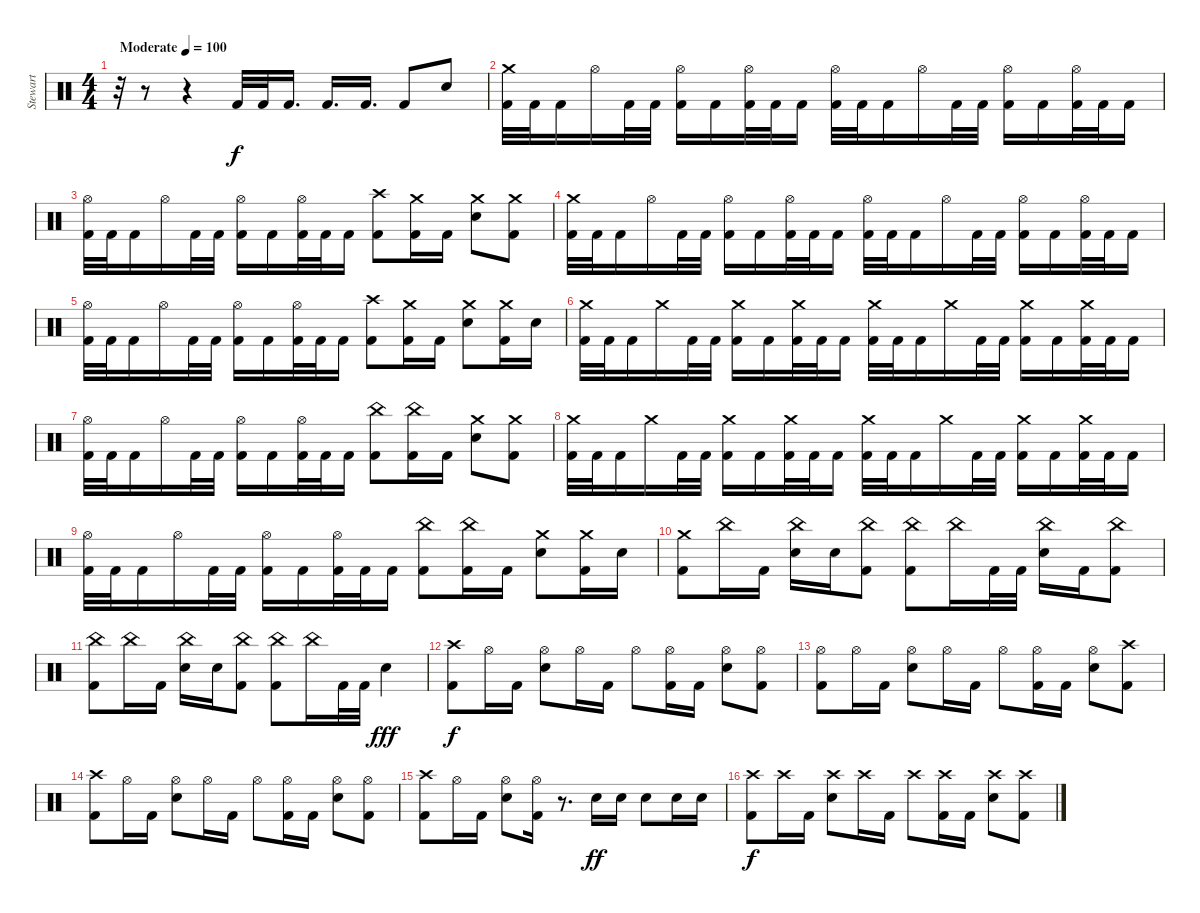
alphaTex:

\track ("Stewart" "Stewart") {instrument percussion}
\staff {score}
\articulation defaults
\ts (4 4)
\tempo (100 "Moderate")
\clef neutral
\ks c
r.32{dy f} r.8 r.4 "Kick (hit) 2".32 "Kick (hit) 2".32 "Kick (hit) 2".16{d} "Kick (hit) 2".16{d} "Kick (hit) 2".16{d} "Kick (hit) 2".8 "Electric Snare (hit)".8 |
("Crash medium (hit)" "Kick (hit) 2").32 "Kick (hit) 2".32 "Kick (hit) 2".16 "Hi-Hat (open)".16 "Kick (hit) 2".32 "Kick (hit) 2".32 ("Hi-Hat (open)" "Kick (hit) 2").16 "Kick (hit) 2".16 ("Hi-Hat (open)" "Kick (hit) 2").32 "Kick (hit) 2".32 "Kick (hit) 2".16 ("Hi-Hat (open)" "Kick (hit) 2").32 "Kick (hit) 2".32 "Kick (hit) 2".16 "Hi-Hat (open)".16 "Kick (hit) 2".32 "Kick (hit) 2".32 ("Hi-Hat (open)" "Kick (hit) 2").16 "Kick (hit) 2".16 ("Hi-Hat (open)" "Kick (hit) 2").32 "Kick (hit) 2".32 "Kick (hit) 2".16 |
("Hi-Hat (open)" "Kick (hit) 2").32 "Kick (hit) 2".32 "Kick (hit) 2".16 "Hi-Hat (open)".16 "Kick (hit) 2".32 "Kick (hit) 2".32 ("Hi-Hat (open)" "Kick (hit) 2").16 "Kick (hit) 2".16 ("Hi-Hat (open)" "Kick (hit) 2").32 "Kick (hit) 2".32 "Kick (hit) 2".16 ("Crash high (hit)" "Kick (hit) 2").8 ("Crash medium (hit)" "Kick (hit) 2").16 "Kick (hit) 2".16 ("Crash medium (hit)" "Electric Snare (hit)").8 ("Crash medium (hit)" "Kick (hit) 2").8 |
("Crash medium (hit)" "Kick (hit) 2").32 "Kick (hit) 2".32 "Kick (hit) 2".16 "Hi-Hat (open)".16 "Kick (hit) 2".32 "Kick (hit) 2".32 ("Hi-Hat (open)" "Kick (hit) 2").16 "Kick (hit) 2".16 ("Hi-Hat (open)" "Kick (hit) 2").32 "Kick (hit) 2".32 "Kick (hit) 2".16 ("Hi-Hat (open)" "Kick (hit) 2").32 "Kick (hit) 2".32 "Kick (hit) 2".16 "Hi-Hat (open)".16 "Kick (hit) 2".32 "Kick (hit) 2".32 ("Hi-Hat (open)" "Kick (hit) 2").16 "Kick (hit) 2".16 ("Hi-Hat (open)" "Kick (hit) 2").32 "Kick (hit) 2".32 "Kick (hit) 2".16 |
("Hi-Hat (open)" "Kick (hit) 2").32 "Kick (hit) 2".32 "Kick (hit) 2".16 "Hi-Hat (open)".16 "Kick (hit) 2".32 "Kick (hit) 2".32 ("Hi-Hat (open)" "Kick (hit) 2").16 "Kick (hit) 2".16 ("Hi-Hat (open)" "Kick (hit) 2").32 "Kick (hit) 2".32 "Kick (hit) 2".16 ("Crash high (hit)" "Kick (hit) 2").8 ("Crash medium (hit)" "Kick (hit) 2").16 "Kick (hit) 2".16 ("Crash medium (hit)" "Electric Snare (hit)").8 ("Crash medium (hit)" "Kick (hit) 2").16 "Electric Snare (hit)".16 |
("Crash medium (hit)" "Kick (hit) 2").32 "Kick (hit) 2".32 "Kick (hit) 2".16 "Crash medium (hit)".16 "Kick (hit) 2".32 "Kick (hit) 2".32 ("Crash medium (hit)" "Kick (hit) 2").16 "Kick (hit) 2".16 ("Crash medium (hit)" "Kick (hit) 2").32 "Kick (hit) 2".32 "Kick (hit) 2".16 ("Crash medium (hit)" "Kick (hit) 2").32 "Kick (hit) 2".32 "Kick (hit) 2".16 "Crash medium (hit)".16 "Kick (hit) 2".32 "Kick (hit) 2".32 ("Crash medium (hit)" "Kick (hit) 2").16 "Kick (hit) 2".16 ("Crash medium (hit)" "Kick (hit) 2").32 "Kick (hit) 2".32 "Kick (hit) 2".16 |
("Hi-Hat (open)" "Kick (hit) 2").32 "Kick (hit) 2".32 "Kick (hit) 2".16 "Hi-Hat (open)".16 "Kick (hit) 2".32 "Kick (hit) 2".32 ("Hi-Hat (open)" "Kick (hit) 2").16 "Kick (hit) 2".16 ("Hi-Hat (open)" "Kick (hit) 2").32 "Kick (hit) 2".32 "Kick (hit) 2".16 ("China (hit)" "Kick (hit) 2").8 ("China (hit)" "Kick (hit) 2").16 "Kick (hit) 2".16 ("Crash medium (hit)" "Electric Snare (hit)").8 ("Crash medium (hit)" "Kick (hit) 2").8 |
("Crash medium (hit)" "Kick (hit) 2").32 "Kick (hit) 2".32 "Kick (hit) 2".16 "Crash medium (hit)".16 "Kick (hit) 2".32 "Kick (hit) 2".32 ("Crash medium (hit)" "Kick (hit) 2").16 "Kick (hit) 2".16 ("Crash medium (hit)" "Kick (hit) 2").32 "Kick (hit) 2".32 "Kick (hit) 2".16 ("Crash medium (hit)" "Kick (hit) 2").32 "Kick (hit) 2".32 "Kick (hit) 2".16 "Crash medium (hit)".16 "Kick (hit) 2".32 "Kick (hit) 2".32 ("Crash medium (hit)" "Kick (hit) 2").16 "Kick (hit) 2".16 ("Crash medium (hit)" "Kick (hit) 2").32 "Kick (hit) 2".32 "Kick (hit) 2".16 |
("Hi-Hat (open)" "Kick (hit) 2").32 "Kick (hit) 2".32 "Kick (hit) 2".16 "Hi-Hat (open)".16 "Kick (hit) 2".32 "Kick (hit) 2".32 ("Hi-Hat (open)" "Kick (hit) 2").16 "Kick (hit) 2".16 ("Hi-Hat (open)" "Kick (hit) 2").32 "Kick (hit) 2".32 "Kick (hit) 2".16 ("China (hit)" "Kick (hit) 2").8 ("China (hit)" "Kick (hit) 2").16 "Kick (hit) 2".16 ("Crash medium (hit)" "Electric Snare (hit)").8 ("Crash medium (hit)" "Kick (hit) 2").16 "Electric Snare (hit)".16 |
("Crash medium (hit)" "Kick (hit) 2").8 "China (hit)".16 "Kick (hit) 2".16 ("China (hit)" "Electric Snare (hit)").16 "Electric Snare (hit)".16 ("China (hit)" "Kick (hit) 2").8 ("China (hit)" "Kick (hit) 2").8 "China (hit)".16 "Kick (hit) 2".32 "Kick (hit) 2".32 ("China (hit)" "Electric Snare (hit)").16 "Kick (hit) 2".16 ("China (hit)" "Kick (hit) 2").8 |
("China (hit)" "Kick (hit) 2").8 "China (hit)".16 "Kick (hit) 2".16 ("China (hit)" "Electric Snare (hit)").16 "Electric Snare (hit)".16 ("China (hit)" "Kick (hit) 2").8 ("China (hit)" "Kick (hit) 2").8 "China (hit)".16 "Kick (hit) 2".32 "Kick (hit) 2".32 "Electric Snare (hit)".4{dy fff} |
("Crash high (hit)" "Kick (hit) 2").8{dy f} "Hi-Hat (open)".16 "Kick (hit) 2".16 ("Hi-Hat (open)" "Electric Snare (hit)").8 "Hi-Hat (open)".16 "Kick (hit) 2".16 "Hi-Hat (open)".8 ("Hi-Hat (open)" "Kick (hit) 2").16 "Kick (hit) 2".16 ("Hi-Hat (open)" "Electric Snare (hit)").8 ("Hi-Hat (open)" "Kick (hit) 2").8 |
("Hi-Hat (open)" "Kick (hit) 2").8 "Hi-Hat (open)".16 "Kick (hit) 2".16 ("Hi-Hat (open)" "Electric Snare (hit)").8 "Hi-Hat (open)".16 "Kick (hit) 2".16 "Hi-Hat (open)".8 ("Hi-Hat (open)" "Kick (hit) 2").16 "Kick (hit) 2".16 ("Hi-Hat (open)" "Electric Snare (hit)").8 ("Crash high (hit)" "Kick (hit) 2").8 |
("Crash high (hit)" "Kick (hit) 2").8 "Hi-Hat (open)".16 "Kick (hit) 2".16 ("Hi-Hat (open)" "Electric Snare (hit)").8 "Hi-Hat (open)".16 "Kick (hit) 2".16 "Hi-Hat (open)".8 ("Hi-Hat (open)" "Kick (hit) 2").16 "Kick (hit) 2".16 ("Hi-Hat (open)" "Electric Snare (hit)").8 ("Hi-Hat (open)" "Kick (hit) 2").8 |
("Crash high (hit)" "Kick (hit) 2").8 "Hi-Hat (open)".16 "Kick (hit) 2".16 ("Hi-Hat (open)" "Electric Snare (hit)").8 ("Hi-Hat (open)" "Kick (hit) 2").16 r.8{d} "Electric Snare (hit)".16{dy ff} "Electric Snare (hit)".16 "Electric Snare (hit)".8 "Electric Snare (hit)".16 "Electric Snare (hit)".16 |
("Crash high (hit)" "Kick (hit) 2").8{dy f} "Crash high (hit)".16 "Kick (hit) 2".16 ("Crash high (hit)" "Electric Snare (hit)").8 "Crash high (hit)".16 "Kick (hit) 2".16 "Crash high (hit)".8 ("Crash high (hit)" "Kick (hit) 2").16 "Kick (hit) 2".16 ("Crash high (hit)" "Electric Snare (hit)").8 ("Crash high (hit)" "Kick (hit) 2").8
